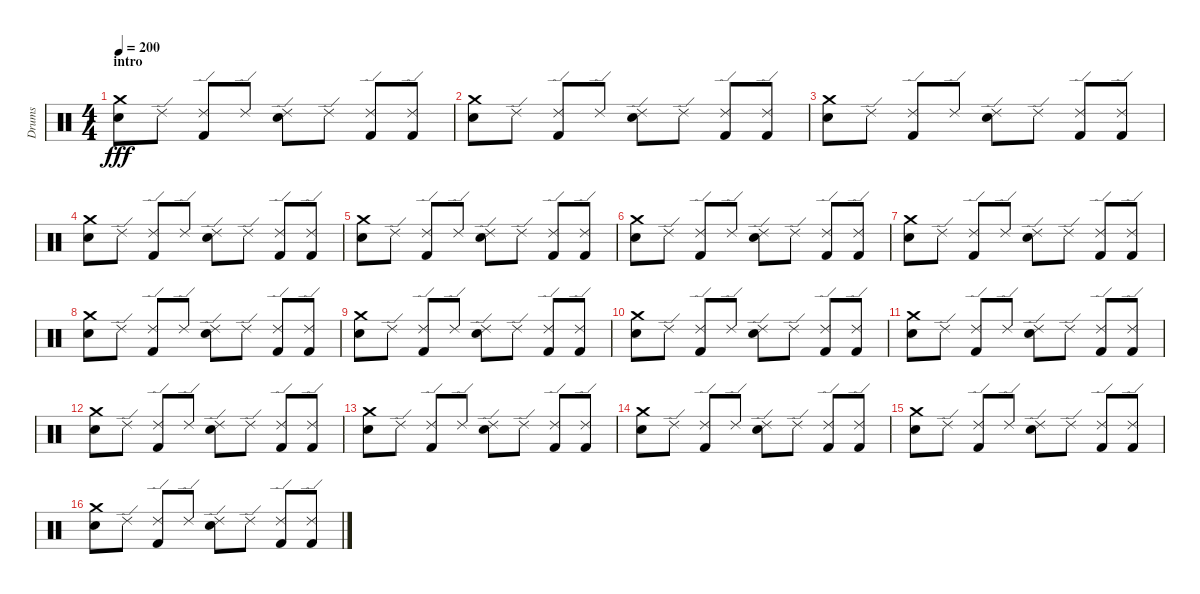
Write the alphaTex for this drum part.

\track ("Drums" "Drums") {instrument percussion}
\staff {score}
\articulation defaults
\ts (4 4)
\section ("" "intro")
\tempo 200
\clef neutral
\ks c
("Crash medium (hit)" "Electric Snare (hit)").8{dy fff} "Ride (edge) 2".8 ("Ride (edge) 2" "Kick (hit) 2").8 "Ride (edge) 2".8 ("Ride (edge) 2" "Electric Snare (hit)").8 "Ride (edge) 2".8 ("Ride (edge) 2" "Kick (hit) 2").8 ("Ride (edge) 2" "Kick (hit) 2").8 |
("Crash medium (hit)" "Electric Snare (hit)").8 "Ride (edge) 2".8 ("Ride (edge) 2" "Kick (hit) 2").8 "Ride (edge) 2".8 ("Ride (edge) 2" "Electric Snare (hit)").8 "Ride (edge) 2".8 ("Ride (edge) 2" "Kick (hit) 2").8 ("Ride (edge) 2" "Kick (hit) 2").8 |
("Crash medium (hit)" "Electric Snare (hit)").8 "Ride (edge) 2".8 ("Ride (edge) 2" "Kick (hit) 2").8 "Ride (edge) 2".8 ("Ride (edge) 2" "Electric Snare (hit)").8 "Ride (edge) 2".8 ("Ride (edge) 2" "Kick (hit) 2").8 ("Ride (edge) 2" "Kick (hit) 2").8 |
("Crash medium (hit)" "Electric Snare (hit)").8 "Ride (edge) 2".8 ("Ride (edge) 2" "Kick (hit) 2").8 "Ride (edge) 2".8 ("Ride (edge) 2" "Electric Snare (hit)").8 "Ride (edge) 2".8 ("Ride (edge) 2" "Kick (hit) 2").8 ("Ride (edge) 2" "Kick (hit) 2").8 |
("Crash medium (hit)" "Electric Snare (hit)").8 "Ride (edge) 2".8 ("Ride (edge) 2" "Kick (hit) 2").8 "Ride (edge) 2".8 ("Ride (edge) 2" "Electric Snare (hit)").8 "Ride (edge) 2".8 ("Ride (edge) 2" "Kick (hit) 2").8 ("Ride (edge) 2" "Kick (hit) 2").8 |
("Crash medium (hit)" "Electric Snare (hit)").8 "Ride (edge) 2".8 ("Ride (edge) 2" "Kick (hit) 2").8 "Ride (edge) 2".8 ("Ride (edge) 2" "Electric Snare (hit)").8 "Ride (edge) 2".8 ("Ride (edge) 2" "Kick (hit) 2").8 ("Ride (edge) 2" "Kick (hit) 2").8 |
("Crash medium (hit)" "Electric Snare (hit)").8 "Ride (edge) 2".8 ("Ride (edge) 2" "Kick (hit) 2").8 "Ride (edge) 2".8 ("Ride (edge) 2" "Electric Snare (hit)").8 "Ride (edge) 2".8 ("Ride (edge) 2" "Kick (hit) 2").8 ("Ride (edge) 2" "Kick (hit) 2").8 |
("Crash medium (hit)" "Electric Snare (hit)").8 "Ride (edge) 2".8 ("Ride (edge) 2" "Kick (hit) 2").8 "Ride (edge) 2".8 ("Ride (edge) 2" "Electric Snare (hit)").8 "Ride (edge) 2".8 ("Ride (edge) 2" "Kick (hit) 2").8 ("Ride (edge) 2" "Kick (hit) 2").8 |
("Crash medium (hit)" "Electric Snare (hit)").8 "Ride (edge) 2".8 ("Ride (edge) 2" "Kick (hit) 2").8 "Ride (edge) 2".8 ("Ride (edge) 2" "Electric Snare (hit)").8 "Ride (edge) 2".8 ("Ride (edge) 2" "Kick (hit) 2").8 ("Ride (edge) 2" "Kick (hit) 2").8 |
("Crash medium (hit)" "Electric Snare (hit)").8 "Ride (edge) 2".8 ("Ride (edge) 2" "Kick (hit) 2").8 "Ride (edge) 2".8 ("Ride (edge) 2" "Electric Snare (hit)").8 "Ride (edge) 2".8 ("Ride (edge) 2" "Kick (hit) 2").8 ("Ride (edge) 2" "Kick (hit) 2").8 |
("Crash medium (hit)" "Electric Snare (hit)").8 "Ride (edge) 2".8 ("Ride (edge) 2" "Kick (hit) 2").8 "Ride (edge) 2".8 ("Ride (edge) 2" "Electric Snare (hit)").8 "Ride (edge) 2".8 ("Ride (edge) 2" "Kick (hit) 2").8 ("Ride (edge) 2" "Kick (hit) 2").8 |
("Crash medium (hit)" "Electric Snare (hit)").8 "Ride (edge) 2".8 ("Ride (edge) 2" "Kick (hit) 2").8 "Ride (edge) 2".8 ("Ride (edge) 2" "Electric Snare (hit)").8 "Ride (edge) 2".8 ("Ride (edge) 2" "Kick (hit) 2").8 ("Ride (edge) 2" "Kick (hit) 2").8 |
("Crash medium (hit)" "Electric Snare (hit)").8 "Ride (edge) 2".8 ("Ride (edge) 2" "Kick (hit) 2").8 "Ride (edge) 2".8 ("Ride (edge) 2" "Electric Snare (hit)").8 "Ride (edge) 2".8 ("Ride (edge) 2" "Kick (hit) 2").8 ("Ride (edge) 2" "Kick (hit) 2").8 |
("Crash medium (hit)" "Electric Snare (hit)").8 "Ride (edge) 2".8 ("Ride (edge) 2" "Kick (hit) 2").8 "Ride (edge) 2".8 ("Ride (edge) 2" "Electric Snare (hit)").8 "Ride (edge) 2".8 ("Ride (edge) 2" "Kick (hit) 2").8 ("Ride (edge) 2" "Kick (hit) 2").8 |
("Crash medium (hit)" "Electric Snare (hit)").8 "Ride (edge) 2".8 ("Ride (edge) 2" "Kick (hit) 2").8 "Ride (edge) 2".8 ("Ride (edge) 2" "Electric Snare (hit)").8 "Ride (edge) 2".8 ("Ride (edge) 2" "Kick (hit) 2").8 ("Ride (edge) 2" "Kick (hit) 2").8 |
("Crash medium (hit)" "Electric Snare (hit)").8 "Ride (edge) 2".8 ("Ride (edge) 2" "Kick (hit) 2").8 "Ride (edge) 2".8 ("Ride (edge) 2" "Electric Snare (hit)").8 "Ride (edge) 2".8 ("Ride (edge) 2" "Kick (hit) 2").8 ("Ride (edge) 2" "Kick (hit) 2").8
